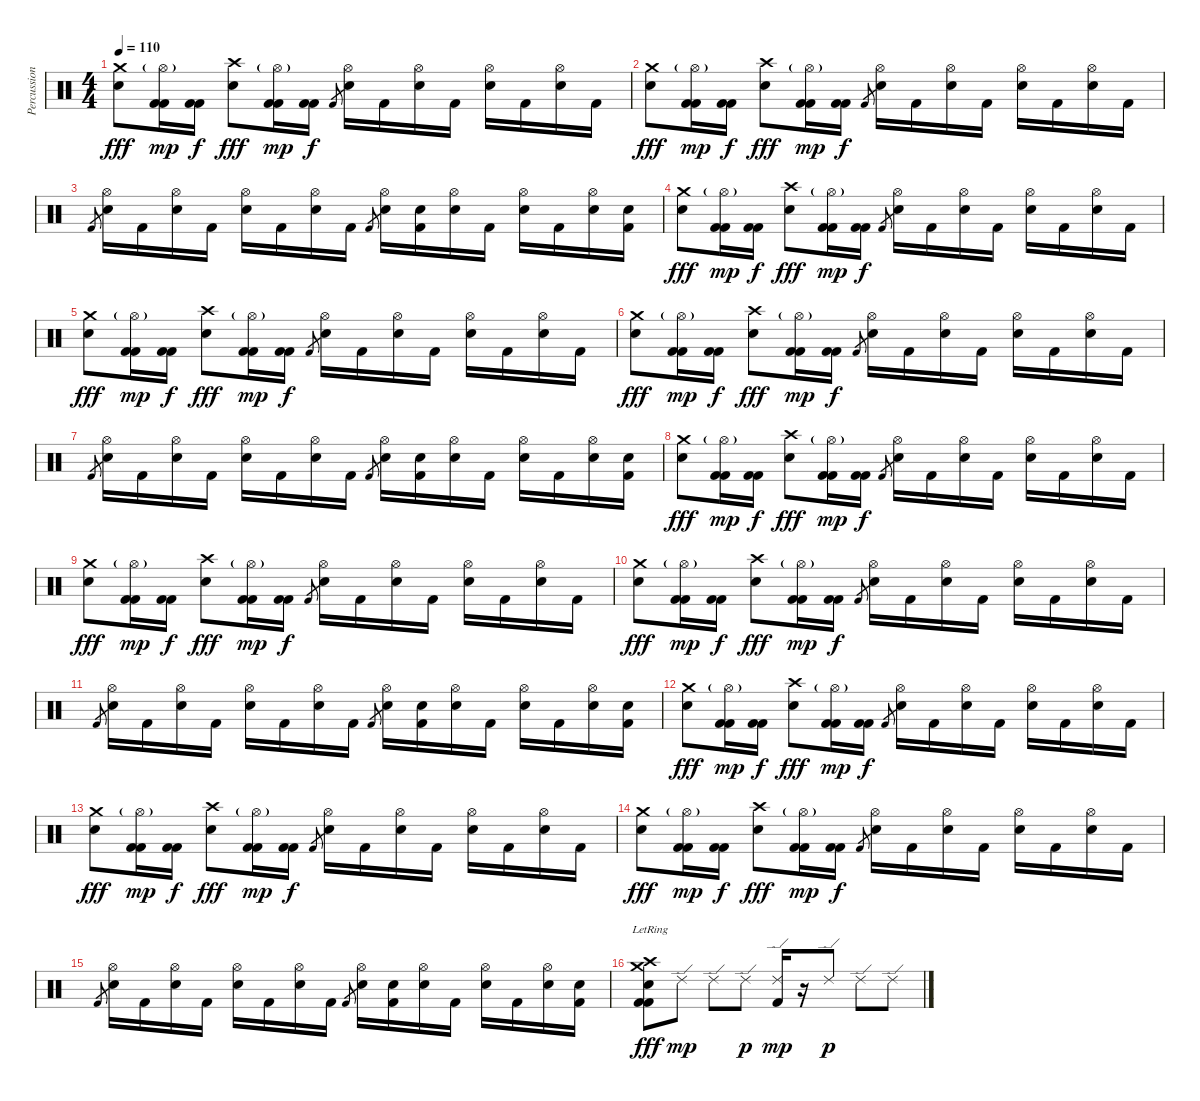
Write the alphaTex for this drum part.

\track ("Percussion" "Percussion") {instrument percussion}
\staff {score}
\articulation defaults
\ts (4 4)
\tempo 110
\clef neutral
\ks c
("Crash medium (hit)" "Snare (hit) 2").8{dy fff} ("Hi-Hat (open)"{g} "Kick (hit) 2" "Kick (hit) 2").16{dy mp} ("Kick (hit) 2" "Kick (hit) 2").16{dy f} ("Crash high (hit)" "Snare (hit) 2").8{dy fff} ("Hi-Hat (open)"{g} "Kick (hit) 2" "Kick (hit) 2").16{dy mp} ("Kick (hit) 2" "Kick (hit) 2").16{dy f} "Kick (hit) 2".8{gr} ("Hi-Hat (open)" "Electric Snare (hit)").16 "Kick (hit) 2".16 ("Hi-Hat (open)" "Electric Snare (hit)").16 "Kick (hit) 2".16 ("Hi-Hat (open)" "Electric Snare (hit)").16 "Kick (hit) 2".16 ("Hi-Hat (open)" "Electric Snare (hit)").16 "Kick (hit) 2".16 |
("Crash medium (hit)" "Snare (hit) 2").8{dy fff} ("Hi-Hat (open)"{g} "Kick (hit) 2" "Kick (hit) 2").16{dy mp} ("Kick (hit) 2" "Kick (hit) 2").16{dy f} ("Crash high (hit)" "Snare (hit) 2").8{dy fff} ("Hi-Hat (open)"{g} "Kick (hit) 2" "Kick (hit) 2").16{dy mp} ("Kick (hit) 2" "Kick (hit) 2").16{dy f} "Kick (hit) 2".8{gr} ("Hi-Hat (open)" "Electric Snare (hit)").16 "Kick (hit) 2".16 ("Hi-Hat (open)" "Electric Snare (hit)").16 "Kick (hit) 2".16 ("Hi-Hat (open)" "Electric Snare (hit)").16 "Kick (hit) 2".16 ("Hi-Hat (open)" "Electric Snare (hit)").16 "Kick (hit) 2".16 |
"Kick (hit) 2".8{gr} ("Hi-Hat (open)" "Electric Snare (hit)").16 "Kick (hit) 2".16 ("Hi-Hat (open)" "Electric Snare (hit)").16 "Kick (hit) 2".16 ("Hi-Hat (open)" "Electric Snare (hit)").16 "Kick (hit) 2".16 ("Hi-Hat (open)" "Electric Snare (hit)").16 "Kick (hit) 2".16 "Kick (hit) 2".8{gr} ("Hi-Hat (open)" "Electric Snare (hit)").16 ("Snare (hit) 2" "Kick (hit) 2").16 ("Hi-Hat (open)" "Electric Snare (hit)").16 "Kick (hit) 2".16 ("Hi-Hat (open)" "Electric Snare (hit)").16 "Kick (hit) 2".16 ("Hi-Hat (open)" "Snare (hit) 2").16 ("Snare (hit) 2" "Kick (hit) 2").16 |
("Crash medium (hit)" "Snare (hit) 2").8{dy fff} ("Hi-Hat (open)"{g} "Kick (hit) 2" "Kick (hit) 2").16{dy mp} ("Kick (hit) 2" "Kick (hit) 2").16{dy f} ("Crash high (hit)" "Snare (hit) 2").8{dy fff} ("Hi-Hat (open)"{g} "Kick (hit) 2" "Kick (hit) 2").16{dy mp} ("Kick (hit) 2" "Kick (hit) 2").16{dy f} "Kick (hit) 2".8{gr} ("Hi-Hat (open)" "Electric Snare (hit)").16 "Kick (hit) 2".16 ("Hi-Hat (open)" "Electric Snare (hit)").16 "Kick (hit) 2".16 ("Hi-Hat (open)" "Electric Snare (hit)").16 "Kick (hit) 2".16 ("Hi-Hat (open)" "Electric Snare (hit)").16 "Kick (hit) 2".16 |
("Crash medium (hit)" "Snare (hit) 2").8{dy fff} ("Hi-Hat (open)"{g} "Kick (hit) 2" "Kick (hit) 2").16{dy mp} ("Kick (hit) 2" "Kick (hit) 2").16{dy f} ("Crash high (hit)" "Snare (hit) 2").8{dy fff} ("Hi-Hat (open)"{g} "Kick (hit) 2" "Kick (hit) 2").16{dy mp} ("Kick (hit) 2" "Kick (hit) 2").16{dy f} "Kick (hit) 2".8{gr} ("Hi-Hat (open)" "Electric Snare (hit)").16 "Kick (hit) 2".16 ("Hi-Hat (open)" "Electric Snare (hit)").16 "Kick (hit) 2".16 ("Hi-Hat (open)" "Electric Snare (hit)").16 "Kick (hit) 2".16 ("Hi-Hat (open)" "Electric Snare (hit)").16 "Kick (hit) 2".16 |
("Crash medium (hit)" "Snare (hit) 2").8{dy fff} ("Hi-Hat (open)"{g} "Kick (hit) 2" "Kick (hit) 2").16{dy mp} ("Kick (hit) 2" "Kick (hit) 2").16{dy f} ("Crash high (hit)" "Snare (hit) 2").8{dy fff} ("Hi-Hat (open)"{g} "Kick (hit) 2" "Kick (hit) 2").16{dy mp} ("Kick (hit) 2" "Kick (hit) 2").16{dy f} "Kick (hit) 2".8{gr} ("Hi-Hat (open)" "Electric Snare (hit)").16 "Kick (hit) 2".16 ("Hi-Hat (open)" "Electric Snare (hit)").16 "Kick (hit) 2".16 ("Hi-Hat (open)" "Electric Snare (hit)").16 "Kick (hit) 2".16 ("Hi-Hat (open)" "Electric Snare (hit)").16 "Kick (hit) 2".16 |
"Kick (hit) 2".8{gr} ("Hi-Hat (open)" "Electric Snare (hit)").16 "Kick (hit) 2".16 ("Hi-Hat (open)" "Electric Snare (hit)").16 "Kick (hit) 2".16 ("Hi-Hat (open)" "Electric Snare (hit)").16 "Kick (hit) 2".16 ("Hi-Hat (open)" "Electric Snare (hit)").16 "Kick (hit) 2".16 "Kick (hit) 2".8{gr} ("Hi-Hat (open)" "Electric Snare (hit)").16 ("Snare (hit) 2" "Kick (hit) 2").16 ("Hi-Hat (open)" "Electric Snare (hit)").16 "Kick (hit) 2".16 ("Hi-Hat (open)" "Electric Snare (hit)").16 "Kick (hit) 2".16 ("Hi-Hat (open)" "Snare (hit) 2").16 ("Snare (hit) 2" "Kick (hit) 2").16 |
("Crash medium (hit)" "Snare (hit) 2").8{dy fff} ("Hi-Hat (open)"{g} "Kick (hit) 2" "Kick (hit) 2").16{dy mp} ("Kick (hit) 2" "Kick (hit) 2").16{dy f} ("Crash high (hit)" "Snare (hit) 2").8{dy fff} ("Hi-Hat (open)"{g} "Kick (hit) 2" "Kick (hit) 2").16{dy mp} ("Kick (hit) 2" "Kick (hit) 2").16{dy f} "Kick (hit) 2".8{gr} ("Hi-Hat (open)" "Electric Snare (hit)").16 "Kick (hit) 2".16 ("Hi-Hat (open)" "Electric Snare (hit)").16 "Kick (hit) 2".16 ("Hi-Hat (open)" "Electric Snare (hit)").16 "Kick (hit) 2".16 ("Hi-Hat (open)" "Electric Snare (hit)").16 "Kick (hit) 2".16 |
("Crash medium (hit)" "Snare (hit) 2").8{dy fff} ("Hi-Hat (open)"{g} "Kick (hit) 2" "Kick (hit) 2").16{dy mp} ("Kick (hit) 2" "Kick (hit) 2").16{dy f} ("Crash high (hit)" "Snare (hit) 2").8{dy fff} ("Hi-Hat (open)"{g} "Kick (hit) 2" "Kick (hit) 2").16{dy mp} ("Kick (hit) 2" "Kick (hit) 2").16{dy f} "Kick (hit) 2".8{gr} ("Hi-Hat (open)" "Electric Snare (hit)").16 "Kick (hit) 2".16 ("Hi-Hat (open)" "Electric Snare (hit)").16 "Kick (hit) 2".16 ("Hi-Hat (open)" "Electric Snare (hit)").16 "Kick (hit) 2".16 ("Hi-Hat (open)" "Electric Snare (hit)").16 "Kick (hit) 2".16 |
("Crash medium (hit)" "Snare (hit) 2").8{dy fff} ("Hi-Hat (open)"{g} "Kick (hit) 2" "Kick (hit) 2").16{dy mp} ("Kick (hit) 2" "Kick (hit) 2").16{dy f} ("Crash high (hit)" "Snare (hit) 2").8{dy fff} ("Hi-Hat (open)"{g} "Kick (hit) 2" "Kick (hit) 2").16{dy mp} ("Kick (hit) 2" "Kick (hit) 2").16{dy f} "Kick (hit) 2".8{gr} ("Hi-Hat (open)" "Electric Snare (hit)").16 "Kick (hit) 2".16 ("Hi-Hat (open)" "Electric Snare (hit)").16 "Kick (hit) 2".16 ("Hi-Hat (open)" "Electric Snare (hit)").16 "Kick (hit) 2".16 ("Hi-Hat (open)" "Electric Snare (hit)").16 "Kick (hit) 2".16 |
"Kick (hit) 2".8{gr} ("Hi-Hat (open)" "Electric Snare (hit)").16 "Kick (hit) 2".16 ("Hi-Hat (open)" "Electric Snare (hit)").16 "Kick (hit) 2".16 ("Hi-Hat (open)" "Electric Snare (hit)").16 "Kick (hit) 2".16 ("Hi-Hat (open)" "Electric Snare (hit)").16 "Kick (hit) 2".16 "Kick (hit) 2".8{gr} ("Hi-Hat (open)" "Electric Snare (hit)").16 ("Snare (hit) 2" "Kick (hit) 2").16 ("Hi-Hat (open)" "Electric Snare (hit)").16 "Kick (hit) 2".16 ("Hi-Hat (open)" "Electric Snare (hit)").16 "Kick (hit) 2".16 ("Hi-Hat (open)" "Snare (hit) 2").16 ("Snare (hit) 2" "Kick (hit) 2").16 |
("Crash medium (hit)" "Snare (hit) 2").8{dy fff} ("Hi-Hat (open)"{g} "Kick (hit) 2" "Kick (hit) 2").16{dy mp} ("Kick (hit) 2" "Kick (hit) 2").16{dy f} ("Crash high (hit)" "Snare (hit) 2").8{dy fff} ("Hi-Hat (open)"{g} "Kick (hit) 2" "Kick (hit) 2").16{dy mp} ("Kick (hit) 2" "Kick (hit) 2").16{dy f} "Kick (hit) 2".8{gr} ("Hi-Hat (open)" "Electric Snare (hit)").16 "Kick (hit) 2".16 ("Hi-Hat (open)" "Electric Snare (hit)").16 "Kick (hit) 2".16 ("Hi-Hat (open)" "Electric Snare (hit)").16 "Kick (hit) 2".16 ("Hi-Hat (open)" "Electric Snare (hit)").16 "Kick (hit) 2".16 |
("Crash medium (hit)" "Snare (hit) 2").8{dy fff} ("Hi-Hat (open)"{g} "Kick (hit) 2" "Kick (hit) 2").16{dy mp} ("Kick (hit) 2" "Kick (hit) 2").16{dy f} ("Crash high (hit)" "Snare (hit) 2").8{dy fff} ("Hi-Hat (open)"{g} "Kick (hit) 2" "Kick (hit) 2").16{dy mp} ("Kick (hit) 2" "Kick (hit) 2").16{dy f} "Kick (hit) 2".8{gr} ("Hi-Hat (open)" "Electric Snare (hit)").16 "Kick (hit) 2".16 ("Hi-Hat (open)" "Electric Snare (hit)").16 "Kick (hit) 2".16 ("Hi-Hat (open)" "Electric Snare (hit)").16 "Kick (hit) 2".16 ("Hi-Hat (open)" "Electric Snare (hit)").16 "Kick (hit) 2".16 |
("Crash medium (hit)" "Snare (hit) 2").8{dy fff} ("Hi-Hat (open)"{g} "Kick (hit) 2" "Kick (hit) 2").16{dy mp} ("Kick (hit) 2" "Kick (hit) 2").16{dy f} ("Crash high (hit)" "Snare (hit) 2").8{dy fff} ("Hi-Hat (open)"{g} "Kick (hit) 2" "Kick (hit) 2").16{dy mp} ("Kick (hit) 2" "Kick (hit) 2").16{dy f} "Kick (hit) 2".8{gr} ("Hi-Hat (open)" "Electric Snare (hit)").16 "Kick (hit) 2".16 ("Hi-Hat (open)" "Electric Snare (hit)").16 "Kick (hit) 2".16 ("Hi-Hat (open)" "Electric Snare (hit)").16 "Kick (hit) 2".16 ("Hi-Hat (open)" "Electric Snare (hit)").16 "Kick (hit) 2".16 |
"Kick (hit) 2".8{gr} ("Hi-Hat (open)" "Electric Snare (hit)").16 "Kick (hit) 2".16 ("Hi-Hat (open)" "Electric Snare (hit)").16 "Kick (hit) 2".16 ("Hi-Hat (open)" "Electric Snare (hit)").16 "Kick (hit) 2".16 ("Hi-Hat (open)" "Electric Snare (hit)").16 "Kick (hit) 2".16 "Kick (hit) 2".8{gr} ("Hi-Hat (open)" "Electric Snare (hit)").16 ("Snare (hit) 2" "Kick (hit) 2").16 ("Hi-Hat (open)" "Electric Snare (hit)").16 "Kick (hit) 2".16 ("Hi-Hat (open)" "Electric Snare (hit)").16 "Kick (hit) 2".16 ("Hi-Hat (open)" "Snare (hit) 2").16 ("Snare (hit) 2" "Kick (hit) 2").16 |
("Crash medium (hit)"{lr} "Crash high (hit)"{lr} "Snare (hit) 2" "Kick (hit) 2" "Kick (hit) 2").8{dy fff} "Ride (edge) 2".8{dy mp} "Ride (edge) 2".8 "Ride (edge) 2".8{dy p} ("Ride (edge) 2" "Kick (hit) 2").16{dy mp} r.16 "Ride (edge) 2".8{dy p} "Ride (edge) 2".8 "Ride (edge) 2".8
